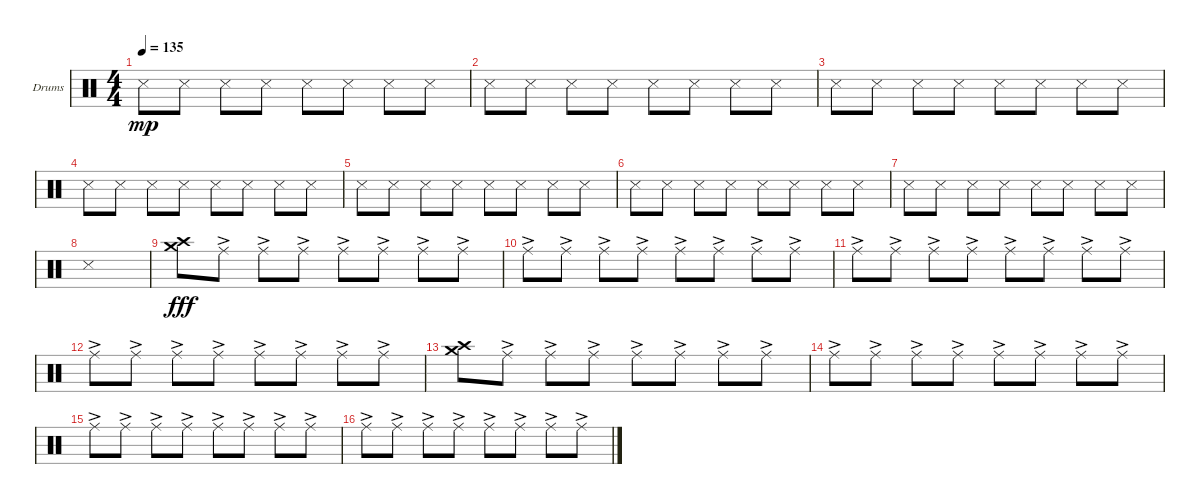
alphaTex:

\defaultSystemsLayout 4
\bracketExtendMode groupsimilarinstruments
\firstSystemTrackNameOrientation horizontal
\otherSystemsTrackNameOrientation horizontal
\track ("Helders" "Drums") {instrument percussion}
\staff {score}
\articulation defaults
\ts (4 4)
\tempo 135
\clef neutral
\ks c "Snare (side stick) 3".8{dy mp} "Snare (side stick) 3".8 "Snare (side stick) 3".8 "Snare (side stick) 3".8 "Snare (side stick) 3".8 "Snare (side stick) 3".8 "Snare (side stick) 3".8 "Snare (side stick) 3".8
|
"Snare (side stick) 3".8 "Snare (side stick) 3".8 "Snare (side stick) 3".8 "Snare (side stick) 3".8 "Snare (side stick) 3".8 "Snare (side stick) 3".8 "Snare (side stick) 3".8 "Snare (side stick) 3".8 |
"Snare (side stick) 3".8 "Snare (side stick) 3".8 "Snare (side stick) 3".8 "Snare (side stick) 3".8 "Snare (side stick) 3".8 "Snare (side stick) 3".8 "Snare (side stick) 3".8 "Snare (side stick) 3".8 |
"Snare (side stick) 3".8 "Snare (side stick) 3".8 "Snare (side stick) 3".8 "Snare (side stick) 3".8 "Snare (side stick) 3".8 "Snare (side stick) 3".8 "Snare (side stick) 3".8 "Snare (side stick) 3".8 |
"Snare (side stick) 3".8 "Snare (side stick) 3".8 "Snare (side stick) 3".8 "Snare (side stick) 3".8 "Snare (side stick) 3".8 "Snare (side stick) 3".8 "Snare (side stick) 3".8 "Snare (side stick) 3".8 |
"Snare (side stick) 3".8 "Snare (side stick) 3".8 "Snare (side stick) 3".8 "Snare (side stick) 3".8 "Snare (side stick) 3".8 "Snare (side stick) 3".8 "Snare (side stick) 3".8 "Snare (side stick) 3".8 |
"Snare (side stick) 3".8 "Snare (side stick) 3".8 "Snare (side stick) 3".8 "Snare (side stick) 3".8 "Snare (side stick) 3".8 "Snare (side stick) 3".8 "Snare (side stick) 3".8 "Snare (side stick) 3".8 |
"Snare (side stick) 3".1 |
("Crash high (hit)" "Crash medium (hit)").8{dy fff} "Ride (middle)"{ac}.8 "Ride (middle)"{ac}.8 "Ride (middle)"{ac}.8 "Ride (middle)"{ac}.8 "Ride (middle)"{ac}.8 "Ride (middle)"{ac}.8 "Ride (middle)"{ac}.8 |
"Ride (middle)"{ac}.8 "Ride (middle)"{ac}.8 "Ride (middle)"{ac}.8 "Ride (middle)"{ac}.8 "Ride (middle)"{ac}.8 "Ride (middle)"{ac}.8 "Ride (middle)"{ac}.8 "Ride (middle)"{ac}.8 |
"Ride (middle)"{ac}.8 "Ride (middle)"{ac}.8 "Ride (middle)"{ac}.8 "Ride (middle)"{ac}.8 "Ride (middle)"{ac}.8 "Ride (middle)"{ac}.8 "Ride (middle)"{ac}.8 "Ride (middle)"{ac}.8 |
"Ride (middle)"{ac}.8 "Ride (middle)"{ac}.8 "Ride (middle)"{ac}.8 "Ride (middle)"{ac}.8 "Ride (middle)"{ac}.8 "Ride (middle)"{ac}.8 "Ride (middle)"{ac}.8 "Ride (middle)"{ac}.8 |
("Crash high (hit)" "Crash medium (hit)").8 "Ride (middle)"{ac}.8 "Ride (middle)"{ac}.8 "Ride (middle)"{ac}.8 "Ride (middle)"{ac}.8 "Ride (middle)"{ac}.8 "Ride (middle)"{ac}.8 "Ride (middle)"{ac}.8 |
"Ride (middle)"{ac}.8 "Ride (middle)"{ac}.8 "Ride (middle)"{ac}.8 "Ride (middle)"{ac}.8 "Ride (middle)"{ac}.8 "Ride (middle)"{ac}.8 "Ride (middle)"{ac}.8 "Ride (middle)"{ac}.8 |
"Ride (middle)"{ac}.8 "Ride (middle)"{ac}.8 "Ride (middle)"{ac}.8 "Ride (middle)"{ac}.8 "Ride (middle)"{ac}.8 "Ride (middle)"{ac}.8 "Ride (middle)"{ac}.8 "Ride (middle)"{ac}.8 |
"Ride (middle)"{ac}.8 "Ride (middle)"{ac}.8 "Ride (middle)"{ac}.8 "Ride (middle)"{ac}.8 "Ride (middle)"{ac}.8 "Ride (middle)"{ac}.8 "Ride (middle)"{ac}.8 "Ride (middle)"{ac}.8
